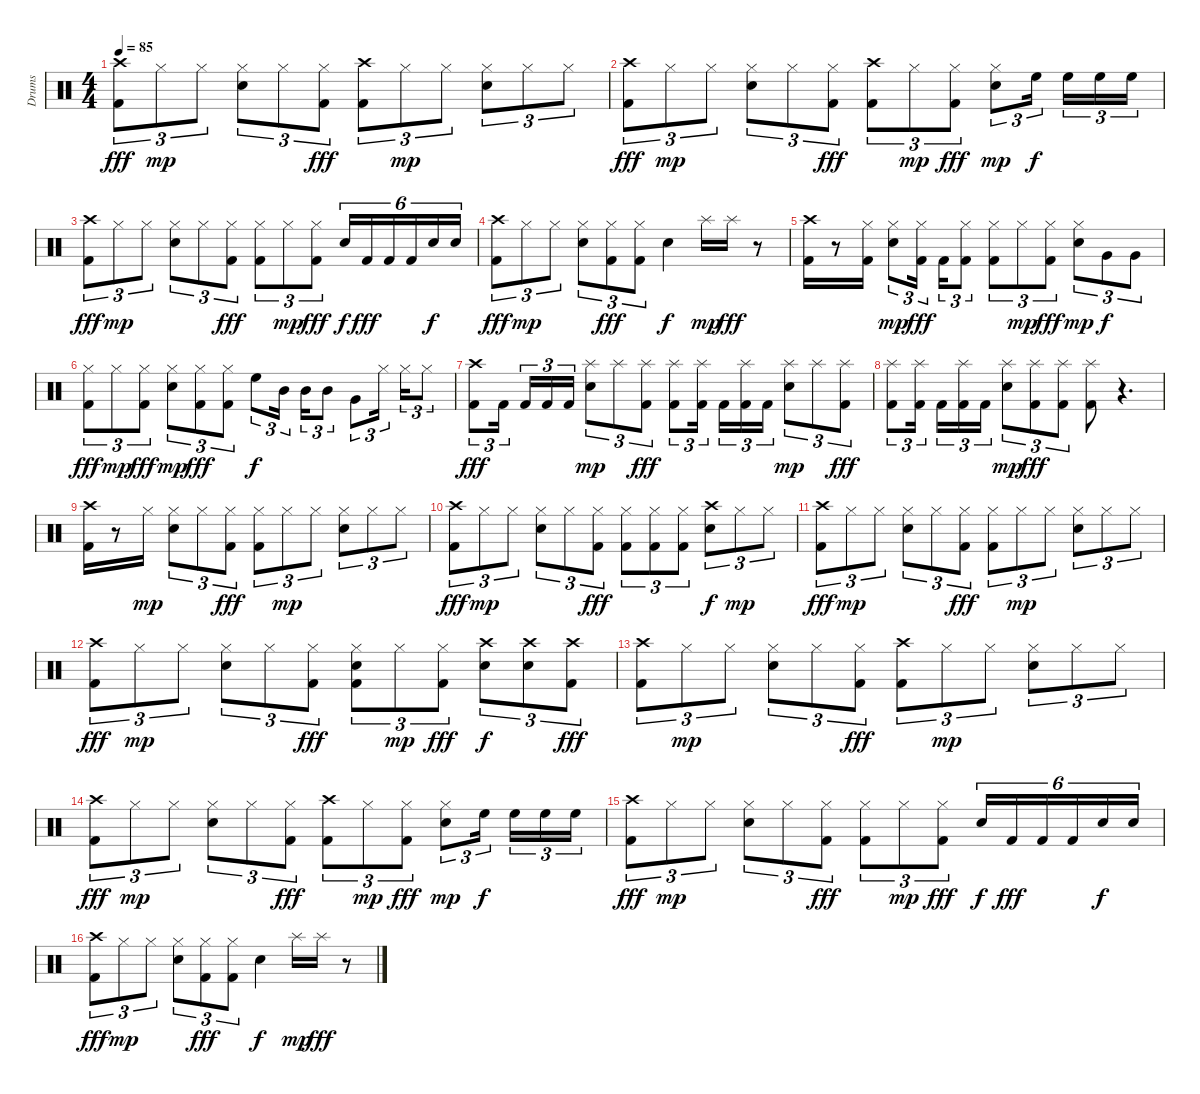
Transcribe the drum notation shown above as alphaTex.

\track ("Drums" "Drums") {instrument percussion}
\staff {score}
\articulation defaults
\ts (4 4)
\tempo 85
\clef neutral
\ks c
("Crash high (hit)" "Kick (hit) 2").8{tu (3 2) dy fff} "Hi-Hat (closed)".8{tu (3 2) dy mp} "Hi-Hat (closed)".8{tu (3 2)} ("Snare (hit) 2" "Hi-Hat (closed)").8{tu (3 2)} "Hi-Hat (closed)".8{tu (3 2)} ("Hi-Hat (closed)" "Kick (hit) 2").8{tu (3 2) dy fff} ("Crash high (hit)" "Kick (hit) 2").8{tu (3 2)} "Hi-Hat (closed)".8{tu (3 2) dy mp} "Hi-Hat (closed)".8{tu (3 2)} ("Snare (hit) 2" "Hi-Hat (closed)").8{tu (3 2)} "Hi-Hat (closed)".8{tu (3 2)} "Hi-Hat (closed)".8{tu (3 2)} |
("Crash high (hit)" "Kick (hit) 2").8{tu (3 2) dy fff} "Hi-Hat (closed)".8{tu (3 2) dy mp} "Hi-Hat (closed)".8{tu (3 2)} ("Snare (hit) 2" "Hi-Hat (closed)").8{tu (3 2)} "Hi-Hat (closed)".8{tu (3 2)} ("Hi-Hat (closed)" "Kick (hit) 2").8{tu (3 2) dy fff} ("Crash high (hit)" "Kick (hit) 2").8{tu (3 2)} "Hi-Hat (closed)".8{tu (3 2) dy mp} ("Hi-Hat (closed)" "Kick (hit) 2").8{tu (3 2) dy fff} ("Snare (hit) 2" "Hi-Hat (closed)").8{tu (3 2) dy mp} "High Floor Tom (hit)".16{tu (3 2) dy f} "High Floor Tom (hit)".16{tu (3 2)} "High Floor Tom (hit)".16{tu (3 2)} "High Floor Tom (hit)".16{tu (3 2)} |
("Crash high (hit)" "Kick (hit) 2").8{tu (3 2) dy fff} "Hi-Hat (closed)".8{tu (3 2) dy mp} "Hi-Hat (closed)".8{tu (3 2)} ("Snare (hit) 2" "Hi-Hat (closed)").8{tu (3 2)} "Hi-Hat (closed)".8{tu (3 2)} ("Hi-Hat (closed)" "Kick (hit) 2").8{tu (3 2) dy fff} ("Hi-Hat (closed)" "Kick (hit) 2").8{tu (3 2)} "Hi-Hat (closed)".8{tu (3 2) dy mp} ("Hi-Hat (closed)" "Kick (hit) 2").8{tu (3 2) dy fff} "Snare (hit) 2".16{tu (6 4) dy f} "Kick (hit) 2".16{tu (6 4) dy fff} "Kick (hit) 2".16{tu (6 4)} "Kick (hit) 2".16{tu (6 4)} "Snare (hit) 2".16{tu (6 4) dy f} "Snare (hit) 2".16{tu (6 4)} |
("Crash high (hit)" "Kick (hit) 2").8{tu (3 2) dy fff} "Hi-Hat (closed)".8{tu (3 2) dy mp} "Hi-Hat (closed)".8{tu (3 2)} ("Snare (hit) 2" "Hi-Hat (closed)").8{tu (3 2)} ("Hi-Hat (closed)" "Kick (hit) 2").8{tu (3 2) dy fff} ("Hi-Hat (closed)" "Kick (hit) 2").8{tu (3 2)} "Snare (hit) 2".4{dy f} "Splash (hit)".16{dy mp} "Splash (hit)".16{dy fff} r.8 |
("Crash high (hit)" "Kick (hit) 2").16 r.8 ("Hi-Hat (closed)" "Kick (hit) 2").16 ("Snare (hit) 2" "Hi-Hat (closed)").8{tu (3 2) dy mp} ("Hi-Hat (closed)" "Kick (hit) 2").16{tu (3 2) dy fff} "Kick (hit) 2".16{tu (3 2)} ("Hi-Hat (closed)" "Kick (hit) 2").8{tu (3 2)} ("Hi-Hat (closed)" "Kick (hit) 2").8{tu (3 2)} "Hi-Hat (closed)".8{tu (3 2) dy mp} ("Hi-Hat (closed)" "Kick (hit) 2").8{tu (3 2) dy fff} ("Snare (hit) 2" "Hi-Hat (closed)").8{tu (3 2) dy mp} "Very Low Tom (hit)".8{tu (3 2) dy f} "Very Low Tom (hit)".8{tu (3 2)} |
("Hi-Hat (closed)" "Kick (hit) 2").8{tu (3 2) dy fff} "Hi-Hat (closed)".8{tu (3 2) dy mp} ("Hi-Hat (closed)" "Kick (hit) 2").8{tu (3 2) dy fff} ("Snare (hit) 2" "Hi-Hat (closed)").8{tu (3 2) dy mp} ("Hi-Hat (closed)" "Kick (hit) 2").8{tu (3 2) dy fff} ("Hi-Hat (closed)" "Kick (hit) 2").8{tu (3 2)} "High Floor Tom (hit)".8{tu (3 2) dy f} "Mid Tom (hit)".16{tu (3 2)} "Mid Tom (hit)".16{tu (3 2)} "Mid Tom (hit)".8{tu (3 2)} "Very Low Tom (hit)".8{tu (3 2)} "Hi-Hat (closed)".16{tu (3 2)} "Hi-Hat (closed)".16{tu (3 2)} "Hi-Hat (closed)".8{tu (3 2)} |
("Crash high (hit)" "Kick (hit) 2").8{tu (3 2) dy fff} "Kick (hit) 2".16{tu (3 2)} "Kick (hit) 2".16{tu (3 2)} "Kick (hit) 2".16{tu (3 2)} "Kick (hit) 2".16{tu (3 2)} ("Snare (hit) 2" "Splash (hit)").8{tu (3 2) dy mp} "Splash (hit)".8{tu (3 2)} ("Splash (hit)" "Kick (hit) 2").8{tu (3 2) dy fff} ("Splash (hit)" "Kick (hit) 2").8{tu (3 2)} ("Splash (hit)" "Kick (hit) 2").16{tu (3 2)} "Kick (hit) 2".16{tu (3 2)} ("Splash (hit)" "Kick (hit) 2").16{tu (3 2)} "Kick (hit) 2".16{tu (3 2)} ("Snare (hit) 2" "Splash (hit)").8{tu (3 2) dy mp} "Splash (hit)".8{tu (3 2)} ("Splash (hit)" "Kick (hit) 2").8{tu (3 2) dy fff} |
("Splash (hit)" "Kick (hit) 2").8{tu (3 2)} ("Splash (hit)" "Kick (hit) 2").16{tu (3 2)} "Kick (hit) 2".16{tu (3 2)} ("Splash (hit)" "Kick (hit) 2").16{tu (3 2)} "Kick (hit) 2".16{tu (3 2)} ("Snare (hit) 2" "Splash (hit)").8{tu (3 2) dy mp} ("Splash (hit)" "Kick (hit) 2").8{tu (3 2) dy fff} ("Splash (hit)" "Kick (hit) 2").8{tu (3 2)} ("Splash (hit)" "Kick (hit) 2").8 r.4{d} |
("Crash high (hit)" "Kick (hit) 2").16 r.8 "Hi-Hat (closed)".16{dy mp} ("Snare (hit) 2" "Hi-Hat (closed)").8{tu (3 2)} "Hi-Hat (closed)".8{tu (3 2)} ("Hi-Hat (closed)" "Kick (hit) 2").8{tu (3 2) dy fff} ("Hi-Hat (closed)" "Kick (hit) 2").8{tu (3 2)} "Hi-Hat (closed)".8{tu (3 2) dy mp} "Hi-Hat (closed)".8{tu (3 2)} ("Snare (hit) 2" "Hi-Hat (closed)").8{tu (3 2)} "Hi-Hat (closed)".8{tu (3 2)} "Hi-Hat (closed)".8{tu (3 2)} |
("Crash high (hit)" "Kick (hit) 2").8{tu (3 2) dy fff} "Hi-Hat (closed)".8{tu (3 2) dy mp} "Hi-Hat (closed)".8{tu (3 2)} ("Snare (hit) 2" "Hi-Hat (closed)").8{tu (3 2)} "Hi-Hat (closed)".8{tu (3 2)} ("Hi-Hat (closed)" "Kick (hit) 2").8{tu (3 2) dy fff} ("Hi-Hat (closed)" "Kick (hit) 2").8{tu (3 2)} ("Hi-Hat (closed)" "Kick (hit) 2").8{tu (3 2)} ("Hi-Hat (closed)" "Kick (hit) 2").8{tu (3 2)} ("Snare (hit) 2" "Crash high (hit)").8{tu (3 2) dy f} "Hi-Hat (closed)".8{tu (3 2) dy mp} "Hi-Hat (closed)".8{tu (3 2)} |
("Crash high (hit)" "Kick (hit) 2").8{tu (3 2) dy fff} "Hi-Hat (closed)".8{tu (3 2) dy mp} "Hi-Hat (closed)".8{tu (3 2)} ("Snare (hit) 2" "Hi-Hat (closed)").8{tu (3 2)} "Hi-Hat (closed)".8{tu (3 2)} ("Hi-Hat (closed)" "Kick (hit) 2").8{tu (3 2) dy fff} ("Hi-Hat (closed)" "Kick (hit) 2").8{tu (3 2)} "Hi-Hat (closed)".8{tu (3 2) dy mp} "Hi-Hat (closed)".8{tu (3 2)} ("Snare (hit) 2" "Hi-Hat (closed)").8{tu (3 2)} "Hi-Hat (closed)".8{tu (3 2)} "Hi-Hat (closed)".8{tu (3 2)} |
("Crash high (hit)" "Kick (hit) 2").8{tu (3 2) dy fff} "Hi-Hat (closed)".8{tu (3 2) dy mp} "Hi-Hat (closed)".8{tu (3 2)} ("Snare (hit) 2" "Hi-Hat (closed)").8{tu (3 2)} "Hi-Hat (closed)".8{tu (3 2)} ("Hi-Hat (closed)" "Kick (hit) 2").8{tu (3 2) dy fff} ("Snare (hit) 2" "Hi-Hat (closed)" "Kick (hit) 2").8{tu (3 2)} "Hi-Hat (closed)".8{tu (3 2) dy mp} ("Hi-Hat (closed)" "Kick (hit) 2").8{tu (3 2) dy fff} ("Snare (hit) 2" "Crash high (hit)").8{tu (3 2) dy f} ("Snare (hit) 2" "Crash high (hit)").8{tu (3 2)} ("Crash high (hit)" "Kick (hit) 2").8{tu (3 2) dy fff} |
("Crash high (hit)" "Kick (hit) 2").8{tu (3 2)} "Hi-Hat (closed)".8{tu (3 2) dy mp} "Hi-Hat (closed)".8{tu (3 2)} ("Snare (hit) 2" "Hi-Hat (closed)").8{tu (3 2)} "Hi-Hat (closed)".8{tu (3 2)} ("Hi-Hat (closed)" "Kick (hit) 2").8{tu (3 2) dy fff} ("Crash high (hit)" "Kick (hit) 2").8{tu (3 2)} "Hi-Hat (closed)".8{tu (3 2) dy mp} "Hi-Hat (closed)".8{tu (3 2)} ("Snare (hit) 2" "Hi-Hat (closed)").8{tu (3 2)} "Hi-Hat (closed)".8{tu (3 2)} "Hi-Hat (closed)".8{tu (3 2)} |
("Crash high (hit)" "Kick (hit) 2").8{tu (3 2) dy fff} "Hi-Hat (closed)".8{tu (3 2) dy mp} "Hi-Hat (closed)".8{tu (3 2)} ("Snare (hit) 2" "Hi-Hat (closed)").8{tu (3 2)} "Hi-Hat (closed)".8{tu (3 2)} ("Hi-Hat (closed)" "Kick (hit) 2").8{tu (3 2) dy fff} ("Crash high (hit)" "Kick (hit) 2").8{tu (3 2)} "Hi-Hat (closed)".8{tu (3 2) dy mp} ("Hi-Hat (closed)" "Kick (hit) 2").8{tu (3 2) dy fff} ("Snare (hit) 2" "Hi-Hat (closed)").8{tu (3 2) dy mp} "High Floor Tom (hit)".16{tu (3 2) dy f} "High Floor Tom (hit)".16{tu (3 2)} "High Floor Tom (hit)".16{tu (3 2)} "High Floor Tom (hit)".16{tu (3 2)} |
("Crash high (hit)" "Kick (hit) 2").8{tu (3 2) dy fff} "Hi-Hat (closed)".8{tu (3 2) dy mp} "Hi-Hat (closed)".8{tu (3 2)} ("Snare (hit) 2" "Hi-Hat (closed)").8{tu (3 2)} "Hi-Hat (closed)".8{tu (3 2)} ("Hi-Hat (closed)" "Kick (hit) 2").8{tu (3 2) dy fff} ("Hi-Hat (closed)" "Kick (hit) 2").8{tu (3 2)} "Hi-Hat (closed)".8{tu (3 2) dy mp} ("Hi-Hat (closed)" "Kick (hit) 2").8{tu (3 2) dy fff} "Snare (hit) 2".16{tu (6 4) dy f} "Kick (hit) 2".16{tu (6 4) dy fff} "Kick (hit) 2".16{tu (6 4)} "Kick (hit) 2".16{tu (6 4)} "Snare (hit) 2".16{tu (6 4) dy f} "Snare (hit) 2".16{tu (6 4)} |
("Crash high (hit)" "Kick (hit) 2").8{tu (3 2) dy fff} "Hi-Hat (closed)".8{tu (3 2) dy mp} "Hi-Hat (closed)".8{tu (3 2)} ("Snare (hit) 2" "Hi-Hat (closed)").8{tu (3 2)} ("Hi-Hat (closed)" "Kick (hit) 2").8{tu (3 2) dy fff} ("Hi-Hat (closed)" "Kick (hit) 2").8{tu (3 2)} "Snare (hit) 2".4{dy f} "Splash (hit)".16{dy mp} "Splash (hit)".16{dy fff} r.8
